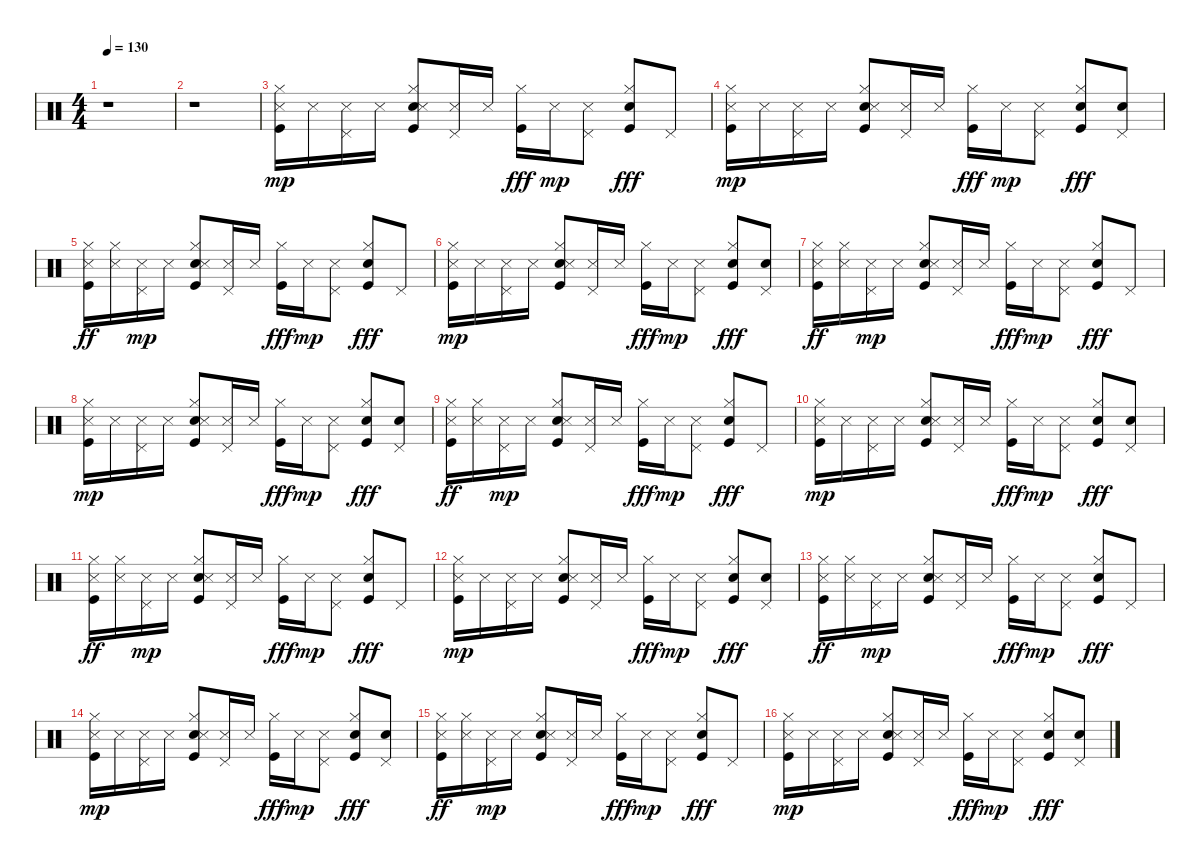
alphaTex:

\track "" {instrument percussion}
\staff {score}
\articulation defaults
\ts (4 4)
\tempo 130
\clef neutral
\ks c
r.1{dy mp} |
r.1 |
("Kick (hit)" "Snare (side stick) 3" "Hi-Hat (closed)").16 "Snare (side stick) 3".16 ("Pedal Hi-Hat (hit)" "Snare (side stick) 3").16 "Snare (side stick) 3".16 ("Hand Clap (hit)" "Kick (hit)" "Snare (side stick) 3" "Hi-Hat (closed)").8 ("Pedal Hi-Hat (hit)" "Snare (side stick) 3").16 "Snare (side stick) 3".16 ("Kick (hit)" "Hi-Hat (closed)").16{dy fff} "Snare (side stick) 3".16{dy mp} ("Pedal Hi-Hat (hit)" "Snare (side stick) 3").8 ("Hand Clap (hit)" "Kick (hit)" "Hi-Hat (closed)").8{dy fff} "Pedal Hi-Hat (hit)".8 |
("Kick (hit)" "Snare (side stick) 3" "Hi-Hat (closed)").16{dy mp} "Snare (side stick) 3".16 ("Pedal Hi-Hat (hit)" "Snare (side stick) 3").16 "Snare (side stick) 3".16 ("Hand Clap (hit)" "Kick (hit)" "Snare (side stick) 3" "Hi-Hat (closed)").8 ("Pedal Hi-Hat (hit)" "Snare (side stick) 3").16 "Snare (side stick) 3".16 ("Kick (hit)" "Hi-Hat (closed)").16{dy fff} "Snare (side stick) 3".16{dy mp} ("Pedal Hi-Hat (hit)" "Snare (side stick) 3").8 ("Hand Clap (hit)" "Kick (hit)" "Hi-Hat (closed)").8{dy fff} ("Hand Clap (hit)" "Pedal Hi-Hat (hit)").8 |
("Kick (hit)" "Snare (side stick) 3" "Hi-Hat (closed)").16{dy ff} ("Snare (side stick) 3" "Hi-Hat (closed)").16 ("Pedal Hi-Hat (hit)" "Snare (side stick) 3").16{dy mp} "Snare (side stick) 3".16 ("Hand Clap (hit)" "Kick (hit)" "Snare (side stick) 3" "Hi-Hat (closed)").8 ("Pedal Hi-Hat (hit)" "Snare (side stick) 3").16 "Snare (side stick) 3".16 ("Kick (hit)" "Hi-Hat (closed)").16{dy fff} "Snare (side stick) 3".16{dy mp} ("Pedal Hi-Hat (hit)" "Snare (side stick) 3").8 ("Hand Clap (hit)" "Kick (hit)" "Hi-Hat (closed)").8{dy fff} "Pedal Hi-Hat (hit)".8 |
("Kick (hit)" "Snare (side stick) 3" "Hi-Hat (closed)").16{dy mp} "Snare (side stick) 3".16 ("Pedal Hi-Hat (hit)" "Snare (side stick) 3").16 "Snare (side stick) 3".16 ("Hand Clap (hit)" "Kick (hit)" "Snare (side stick) 3" "Hi-Hat (closed)").8 ("Pedal Hi-Hat (hit)" "Snare (side stick) 3").16 "Snare (side stick) 3".16 ("Kick (hit)" "Hi-Hat (closed)").16{dy fff} "Snare (side stick) 3".16{dy mp} ("Pedal Hi-Hat (hit)" "Snare (side stick) 3").8 ("Hand Clap (hit)" "Kick (hit)" "Hi-Hat (closed)").8{dy fff} ("Hand Clap (hit)" "Pedal Hi-Hat (hit)").8 |
("Kick (hit)" "Snare (side stick) 3" "Hi-Hat (closed)").16{dy ff} ("Snare (side stick) 3" "Hi-Hat (closed)").16 ("Pedal Hi-Hat (hit)" "Snare (side stick) 3").16{dy mp} "Snare (side stick) 3".16 ("Hand Clap (hit)" "Kick (hit)" "Snare (side stick) 3" "Hi-Hat (closed)").8 ("Pedal Hi-Hat (hit)" "Snare (side stick) 3").16 "Snare (side stick) 3".16 ("Kick (hit)" "Hi-Hat (closed)").16{dy fff} "Snare (side stick) 3".16{dy mp} ("Pedal Hi-Hat (hit)" "Snare (side stick) 3").8 ("Hand Clap (hit)" "Kick (hit)" "Hi-Hat (closed)").8{dy fff} "Pedal Hi-Hat (hit)".8 |
("Kick (hit)" "Snare (side stick) 3" "Hi-Hat (closed)").16{dy mp} "Snare (side stick) 3".16 ("Pedal Hi-Hat (hit)" "Snare (side stick) 3").16 "Snare (side stick) 3".16 ("Hand Clap (hit)" "Kick (hit)" "Snare (side stick) 3" "Hi-Hat (closed)").8 ("Pedal Hi-Hat (hit)" "Snare (side stick) 3").16 "Snare (side stick) 3".16 ("Kick (hit)" "Hi-Hat (closed)").16{dy fff} "Snare (side stick) 3".16{dy mp} ("Pedal Hi-Hat (hit)" "Snare (side stick) 3").8 ("Hand Clap (hit)" "Kick (hit)" "Hi-Hat (closed)").8{dy fff} ("Hand Clap (hit)" "Pedal Hi-Hat (hit)").8 |
("Kick (hit)" "Snare (side stick) 3" "Hi-Hat (closed)").16{dy ff} ("Snare (side stick) 3" "Hi-Hat (closed)").16 ("Pedal Hi-Hat (hit)" "Snare (side stick) 3").16{dy mp} "Snare (side stick) 3".16 ("Hand Clap (hit)" "Kick (hit)" "Snare (side stick) 3" "Hi-Hat (closed)").8 ("Pedal Hi-Hat (hit)" "Snare (side stick) 3").16 "Snare (side stick) 3".16 ("Kick (hit)" "Hi-Hat (closed)").16{dy fff} "Snare (side stick) 3".16{dy mp} ("Pedal Hi-Hat (hit)" "Snare (side stick) 3").8 ("Hand Clap (hit)" "Kick (hit)" "Hi-Hat (closed)").8{dy fff} "Pedal Hi-Hat (hit)".8 |
("Kick (hit)" "Snare (side stick) 3" "Hi-Hat (closed)").16{dy mp} "Snare (side stick) 3".16 ("Pedal Hi-Hat (hit)" "Snare (side stick) 3").16 "Snare (side stick) 3".16 ("Hand Clap (hit)" "Kick (hit)" "Snare (side stick) 3" "Hi-Hat (closed)").8 ("Pedal Hi-Hat (hit)" "Snare (side stick) 3").16 "Snare (side stick) 3".16 ("Kick (hit)" "Hi-Hat (closed)").16{dy fff} "Snare (side stick) 3".16{dy mp} ("Pedal Hi-Hat (hit)" "Snare (side stick) 3").8 ("Hand Clap (hit)" "Kick (hit)" "Hi-Hat (closed)").8{dy fff} ("Hand Clap (hit)" "Pedal Hi-Hat (hit)").8 |
("Kick (hit)" "Snare (side stick) 3" "Hi-Hat (closed)").16{dy ff} ("Snare (side stick) 3" "Hi-Hat (closed)").16 ("Pedal Hi-Hat (hit)" "Snare (side stick) 3").16{dy mp} "Snare (side stick) 3".16 ("Hand Clap (hit)" "Kick (hit)" "Snare (side stick) 3" "Hi-Hat (closed)").8 ("Pedal Hi-Hat (hit)" "Snare (side stick) 3").16 "Snare (side stick) 3".16 ("Kick (hit)" "Hi-Hat (closed)").16{dy fff} "Snare (side stick) 3".16{dy mp} ("Pedal Hi-Hat (hit)" "Snare (side stick) 3").8 ("Hand Clap (hit)" "Kick (hit)" "Hi-Hat (closed)").8{dy fff} "Pedal Hi-Hat (hit)".8 |
("Kick (hit)" "Snare (side stick) 3" "Hi-Hat (closed)").16{dy mp} "Snare (side stick) 3".16 ("Pedal Hi-Hat (hit)" "Snare (side stick) 3").16 "Snare (side stick) 3".16 ("Hand Clap (hit)" "Kick (hit)" "Snare (side stick) 3" "Hi-Hat (closed)").8 ("Pedal Hi-Hat (hit)" "Snare (side stick) 3").16 "Snare (side stick) 3".16 ("Kick (hit)" "Hi-Hat (closed)").16{dy fff} "Snare (side stick) 3".16{dy mp} ("Pedal Hi-Hat (hit)" "Snare (side stick) 3").8 ("Hand Clap (hit)" "Kick (hit)" "Hi-Hat (closed)").8{dy fff} ("Hand Clap (hit)" "Pedal Hi-Hat (hit)").8 |
("Kick (hit)" "Snare (side stick) 3" "Hi-Hat (closed)").16{dy ff} ("Snare (side stick) 3" "Hi-Hat (closed)").16 ("Pedal Hi-Hat (hit)" "Snare (side stick) 3").16{dy mp} "Snare (side stick) 3".16 ("Hand Clap (hit)" "Kick (hit)" "Snare (side stick) 3" "Hi-Hat (closed)").8 ("Pedal Hi-Hat (hit)" "Snare (side stick) 3").16 "Snare (side stick) 3".16 ("Kick (hit)" "Hi-Hat (closed)").16{dy fff} "Snare (side stick) 3".16{dy mp} ("Pedal Hi-Hat (hit)" "Snare (side stick) 3").8 ("Hand Clap (hit)" "Kick (hit)" "Hi-Hat (closed)").8{dy fff} "Pedal Hi-Hat (hit)".8 |
("Kick (hit)" "Snare (side stick) 3" "Hi-Hat (closed)").16{dy mp} "Snare (side stick) 3".16 ("Pedal Hi-Hat (hit)" "Snare (side stick) 3").16 "Snare (side stick) 3".16 ("Hand Clap (hit)" "Kick (hit)" "Snare (side stick) 3" "Hi-Hat (closed)").8 ("Pedal Hi-Hat (hit)" "Snare (side stick) 3").16 "Snare (side stick) 3".16 ("Kick (hit)" "Hi-Hat (closed)").16{dy fff} "Snare (side stick) 3".16{dy mp} ("Pedal Hi-Hat (hit)" "Snare (side stick) 3").8 ("Hand Clap (hit)" "Kick (hit)" "Hi-Hat (closed)").8{dy fff} ("Hand Clap (hit)" "Pedal Hi-Hat (hit)").8 |
("Kick (hit)" "Snare (side stick) 3" "Hi-Hat (closed)").16{dy ff} ("Snare (side stick) 3" "Hi-Hat (closed)").16 ("Pedal Hi-Hat (hit)" "Snare (side stick) 3").16{dy mp} "Snare (side stick) 3".16 ("Hand Clap (hit)" "Kick (hit)" "Snare (side stick) 3" "Hi-Hat (closed)").8 ("Pedal Hi-Hat (hit)" "Snare (side stick) 3").16 "Snare (side stick) 3".16 ("Kick (hit)" "Hi-Hat (closed)").16{dy fff} "Snare (side stick) 3".16{dy mp} ("Pedal Hi-Hat (hit)" "Snare (side stick) 3").8 ("Hand Clap (hit)" "Kick (hit)" "Hi-Hat (closed)").8{dy fff} "Pedal Hi-Hat (hit)".8 |
("Kick (hit)" "Snare (side stick) 3" "Hi-Hat (closed)").16{dy mp} "Snare (side stick) 3".16 ("Pedal Hi-Hat (hit)" "Snare (side stick) 3").16 "Snare (side stick) 3".16 ("Hand Clap (hit)" "Kick (hit)" "Snare (side stick) 3" "Hi-Hat (closed)").8 ("Pedal Hi-Hat (hit)" "Snare (side stick) 3").16 "Snare (side stick) 3".16 ("Kick (hit)" "Hi-Hat (closed)").16{dy fff} "Snare (side stick) 3".16{dy mp} ("Pedal Hi-Hat (hit)" "Snare (side stick) 3").8 ("Hand Clap (hit)" "Kick (hit)" "Hi-Hat (closed)").8{dy fff} ("Hand Clap (hit)" "Pedal Hi-Hat (hit)").8
